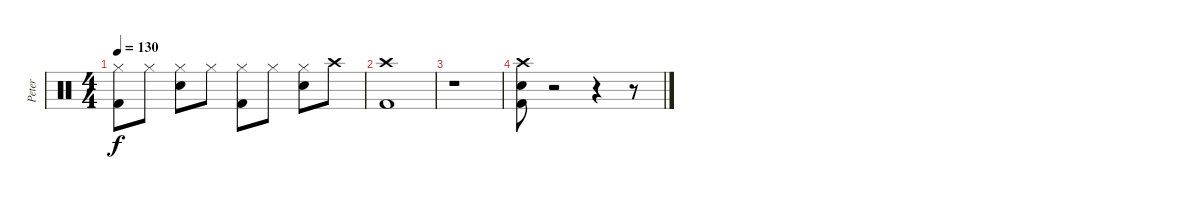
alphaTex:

\track ("Peter" "Peter") {instrument percussion}
\staff {score}
\articulation defaults
\ts (4 4)
\tempo 130
\clef neutral
\ks c
("Hi-Hat (closed)" "Kick (hit) 2").8{dy f} "Hi-Hat (closed)".8 ("Hi-Hat (closed)" "Snare (hit) 2").8 "Hi-Hat (closed)".8 ("Hi-Hat (closed)" "Kick (hit) 2").8 "Hi-Hat (closed)".8 ("Hi-Hat (closed)" "Snare (hit) 2").8 "Crash high (hit)".8 |
("Crash high (hit)" "Kick (hit) 2").1 |
r.1 |
("Crash high (hit)" "Snare (hit) 2" "Kick (hit) 2").8 r.2 r.4 r.8
